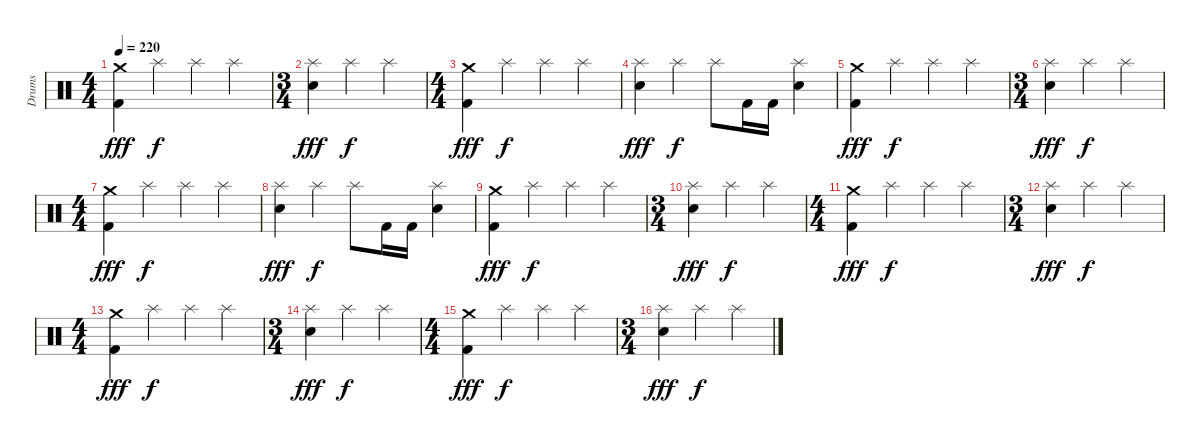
\track ("Drums" "Drums") {instrument percussion}
\staff {score}
\articulation defaults
\ts (4 4)
\tempo 220
\clef neutral
\ks c
("Crash medium (hit)" "Kick (hit) 2").4{dy fff} "Splash (hit)".4{dy f} "Splash (hit)".4 "Splash (hit)".4 |
\ts (3 4)
("Splash (hit)" "Snare (hit) 2").4{dy fff} "Splash (hit)".4{dy f} "Splash (hit)".4 |
\ts (4 4)
("Crash medium (hit)" "Kick (hit) 2").4{dy fff} "Splash (hit)".4{dy f} "Splash (hit)".4 "Splash (hit)".4 |
("Splash (hit)" "Snare (hit) 2").4{dy fff} "Splash (hit)".4{dy f} "Splash (hit)".8 "Kick (hit) 2".16 "Kick (hit) 2".16 ("Splash (hit)" "Snare (hit) 2").4 |
("Crash medium (hit)" "Kick (hit) 2").4{dy fff} "Splash (hit)".4{dy f} "Splash (hit)".4 "Splash (hit)".4 |
\ts (3 4)
("Splash (hit)" "Snare (hit) 2").4{dy fff} "Splash (hit)".4{dy f} "Splash (hit)".4 |
\ts (4 4)
("Crash medium (hit)" "Kick (hit) 2").4{dy fff} "Splash (hit)".4{dy f} "Splash (hit)".4 "Splash (hit)".4 |
("Splash (hit)" "Snare (hit) 2").4{dy fff} "Splash (hit)".4{dy f} "Splash (hit)".8 "Kick (hit) 2".16 "Kick (hit) 2".16 ("Splash (hit)" "Snare (hit) 2").4 |
("Crash medium (hit)" "Kick (hit) 2").4{dy fff} "Splash (hit)".4{dy f} "Splash (hit)".4 "Splash (hit)".4 |
\ts (3 4)
("Splash (hit)" "Snare (hit) 2").4{dy fff} "Splash (hit)".4{dy f} "Splash (hit)".4 |
\ts (4 4)
("Crash medium (hit)" "Kick (hit) 2").4{dy fff} "Splash (hit)".4{dy f} "Splash (hit)".4 "Splash (hit)".4 |
\ts (3 4)
("Splash (hit)" "Snare (hit) 2").4{dy fff} "Splash (hit)".4{dy f} "Splash (hit)".4 |
\ts (4 4)
("Crash medium (hit)" "Kick (hit) 2").4{dy fff} "Splash (hit)".4{dy f} "Splash (hit)".4 "Splash (hit)".4 |
\ts (3 4)
("Splash (hit)" "Snare (hit) 2").4{dy fff} "Splash (hit)".4{dy f} "Splash (hit)".4 |
\ts (4 4)
("Crash medium (hit)" "Kick (hit) 2").4{dy fff} "Splash (hit)".4{dy f} "Splash (hit)".4 "Splash (hit)".4 |
\ts (3 4)
("Splash (hit)" "Snare (hit) 2").4{dy fff} "Splash (hit)".4{dy f} "Splash (hit)".4
